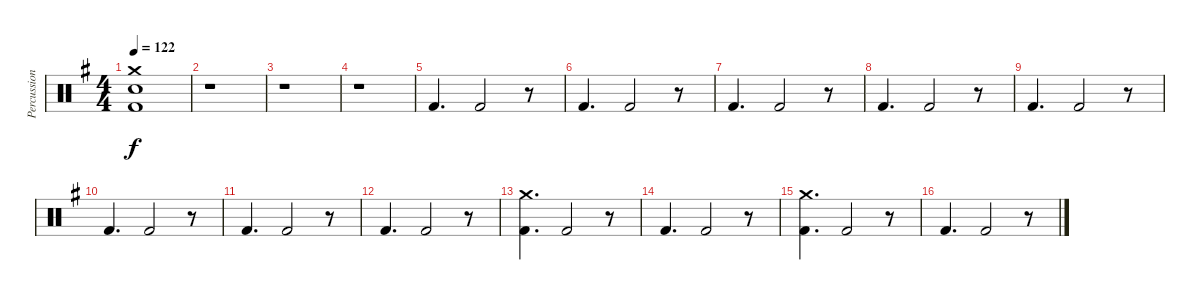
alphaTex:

\track ("Percussion" "Percussion") {instrument percussion}
\staff {score}
\articulation defaults
\ts (4 4)
\tempo 122
\clef neutral
\ks g
("Crash medium (hit)" "Snare (hit) 2" "Kick (hit) 2").1{dy f} |
r.1 |
r.1 |
r.1 |
"Kick (hit) 2".4{d} "Kick (hit) 2".2 r.8 |
"Kick (hit) 2".4{d} "Kick (hit) 2".2 r.8 |
"Kick (hit) 2".4{d} "Kick (hit) 2".2 r.8 |
"Kick (hit) 2".4{d} "Kick (hit) 2".2 r.8 |
"Kick (hit) 2".4{d} "Kick (hit) 2".2 r.8 |
"Kick (hit) 2".4{d} "Kick (hit) 2".2 r.8 |
"Kick (hit) 2".4{d} "Kick (hit) 2".2 r.8 |
"Kick (hit) 2".4{d} "Kick (hit) 2".2 r.8 |
("Crash medium (hit)" "Kick (hit) 2").4{d} "Kick (hit) 2".2 r.8 |
"Kick (hit) 2".4{d} "Kick (hit) 2".2 r.8 |
("Crash medium (hit)" "Kick (hit) 2").4{d} "Kick (hit) 2".2 r.8 |
"Kick (hit) 2".4{d} "Kick (hit) 2".2 r.8
